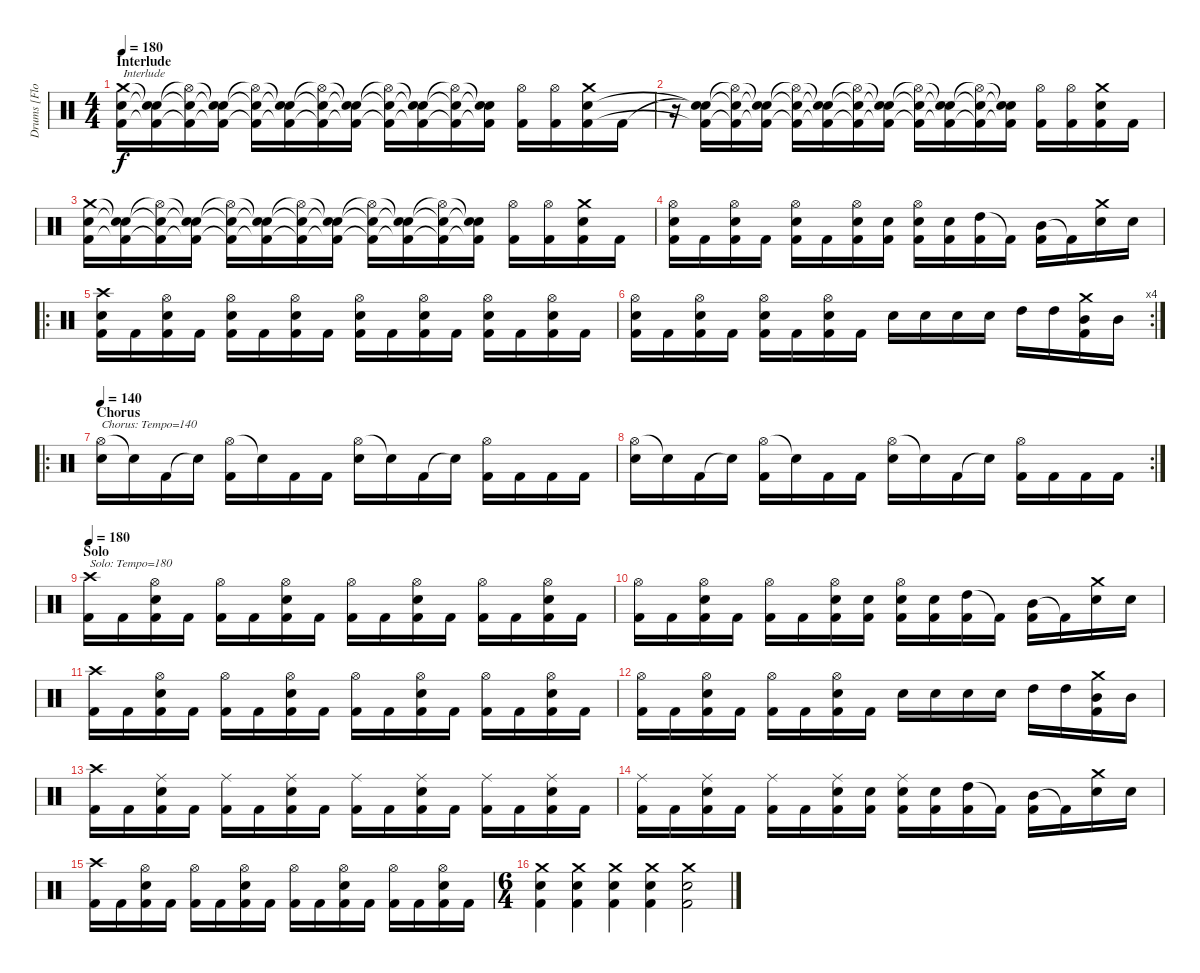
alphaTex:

\track ("Drums [Flo Mournier]" "Drums [Flo") {instrument percussion}
\staff {score}
\articulation defaults
\ts (4 4)
\section ("" "Interlude")
\tempo 180
\clef neutral
\ks c
("Crash medium (hit)" "Electric Snare (hit)" "Kick (hit) 2").16{txt "Interlude" dy f} ("Snare (hit)"{t} "Snare (hit)"{t} "Kick (hit) 2"{t}).16 ("Hi-Hat (open)"{t} "Electric Snare (hit)"{t} "Kick (hit) 2"{t}).16 ("Snare (hit)"{t} "Snare (hit)"{t} "Kick (hit) 2"{t}).16 ("Hi-Hat (open)"{t} "Electric Snare (hit)"{t} "Kick (hit) 2"{t}).16 ("Snare (hit)"{t} "Snare (hit)"{t} "Kick (hit) 2"{t}).16 ("Hi-Hat (open)"{t} "Electric Snare (hit)"{t} "Kick (hit) 2"{t}).16 ("Snare (hit)"{t} "Snare (hit)"{t} "Kick (hit) 2"{t}).16 ("Hi-Hat (open)"{t} "Electric Snare (hit)"{t} "Kick (hit) 2"{t}).16 ("Snare (hit)"{t} "Snare (hit)"{t} "Kick (hit) 2"{t}).16 ("Hi-Hat (open)"{t} "Electric Snare (hit)"{t} "Kick (hit) 2"{t}).16 ("Snare (hit)"{t} "Snare (hit)"{t} "Kick (hit) 2"{t}).16 ("Hi-Hat (open)" "Kick (hit) 2").16 ("Hi-Hat (open)" "Kick (hit) 2").16 ("Crash medium (hit)" "Electric Snare (hit)" "Kick (hit) 2").16 "Kick (hit) 2".16 |
r.16 ("Snare (hit)"{t} "Snare (hit)"{t} "Kick (hit) 2"{t}).16 ("Hi-Hat (open)"{t} "Electric Snare (hit)"{t} "Kick (hit) 2"{t}).16 ("Snare (hit)"{t} "Snare (hit)"{t} "Kick (hit) 2"{t}).16 ("Hi-Hat (open)"{t} "Electric Snare (hit)"{t} "Kick (hit) 2"{t}).16 ("Snare (hit)"{t} "Snare (hit)"{t} "Kick (hit) 2"{t}).16 ("Hi-Hat (open)"{t} "Electric Snare (hit)"{t} "Kick (hit) 2"{t}).16 ("Snare (hit)"{t} "Snare (hit)"{t} "Kick (hit) 2"{t}).16 ("Hi-Hat (open)"{t} "Electric Snare (hit)"{t} "Kick (hit) 2"{t}).16 ("Snare (hit)"{t} "Snare (hit)"{t} "Kick (hit) 2"{t}).16 ("Hi-Hat (open)"{t} "Electric Snare (hit)"{t} "Kick (hit) 2"{t}).16 ("Snare (hit)"{t} "Snare (hit)"{t} "Kick (hit) 2"{t}).16 ("Hi-Hat (open)" "Kick (hit) 2").16 ("Hi-Hat (open)" "Kick (hit) 2").16 ("Crash medium (hit)" "Electric Snare (hit)" "Kick (hit) 2").16 "Kick (hit) 2".16 |
("Crash medium (hit)" "Electric Snare (hit)" "Kick (hit) 2").16 ("Snare (hit)"{t} "Snare (hit)"{t} "Kick (hit) 2"{t}).16 ("Hi-Hat (open)"{t} "Electric Snare (hit)"{t} "Kick (hit) 2"{t}).16 ("Snare (hit)"{t} "Snare (hit)"{t} "Kick (hit) 2"{t}).16 ("Hi-Hat (open)"{t} "Electric Snare (hit)"{t} "Kick (hit) 2"{t}).16 ("Snare (hit)"{t} "Snare (hit)"{t} "Kick (hit) 2"{t}).16 ("Hi-Hat (open)"{t} "Electric Snare (hit)"{t} "Kick (hit) 2"{t}).16 ("Snare (hit)"{t} "Snare (hit)"{t} "Kick (hit) 2"{t}).16 ("Hi-Hat (open)"{t} "Electric Snare (hit)"{t} "Kick (hit) 2"{t}).16 ("Snare (hit)"{t} "Snare (hit)"{t} "Kick (hit) 2"{t}).16 ("Hi-Hat (open)"{t} "Electric Snare (hit)"{t} "Kick (hit) 2"{t}).16 ("Snare (hit)"{t} "Snare (hit)"{t} "Kick (hit) 2"{t}).16 ("Hi-Hat (open)" "Kick (hit) 2").16 ("Hi-Hat (open)" "Kick (hit) 2").16 ("Crash medium (hit)" "Electric Snare (hit)" "Kick (hit) 2").16 "Kick (hit) 2".16 |
("Hi-Hat (open)" "Electric Snare (hit)" "Kick (hit) 2").16 "Kick (hit) 2".16 ("Hi-Hat (open)" "Electric Snare (hit)" "Kick (hit) 2").16 "Kick (hit) 2".16 ("Hi-Hat (open)" "Electric Snare (hit)" "Kick (hit) 2").16 "Kick (hit) 2".16 ("Hi-Hat (open)" "Electric Snare (hit)" "Kick (hit) 2").16 ("Electric Snare (hit)" "Kick (hit) 2").16 ("Hi-Hat (open)" "Electric Snare (hit)" "Kick (hit) 2").16 ("Electric Snare (hit)" "Kick (hit) 2").16 ("High Tom (hit)" "Kick (hit) 2").16 "Kick (hit) 2"{t}.16 ("Mid Tom (hit)" "Kick (hit) 2").16 "Kick (hit) 2"{t}.16 ("Crash medium (hit)" "Electric Snare (hit)").16 "Electric Snare (hit)".16 |
\ro
("Crash high (hit)" "Electric Snare (hit)" "Kick (hit) 2").16 "Kick (hit) 2".16 ("Hi-Hat (open)" "Electric Snare (hit)" "Kick (hit) 2").16 "Kick (hit) 2".16 ("Hi-Hat (open)" "Electric Snare (hit)" "Kick (hit) 2").16 "Kick (hit) 2".16 ("Hi-Hat (open)" "Electric Snare (hit)" "Kick (hit) 2").16 "Kick (hit) 2".16 ("Hi-Hat (open)" "Electric Snare (hit)" "Kick (hit) 2").16 "Kick (hit) 2".16 ("Hi-Hat (open)" "Electric Snare (hit)" "Kick (hit) 2").16 "Kick (hit) 2".16 ("Hi-Hat (open)" "Electric Snare (hit)" "Kick (hit) 2").16 "Kick (hit) 2".16 ("Hi-Hat (open)" "Electric Snare (hit)" "Kick (hit) 2").16 "Kick (hit) 2".16 |
\rc 4
("Hi-Hat (open)" "Electric Snare (hit)" "Kick (hit) 2").16 "Kick (hit) 2".16 ("Hi-Hat (open)" "Electric Snare (hit)" "Kick (hit) 2").16 "Kick (hit) 2".16 ("Hi-Hat (open)" "Electric Snare (hit)" "Kick (hit) 2").16 "Kick (hit) 2".16 ("Hi-Hat (open)" "Electric Snare (hit)" "Kick (hit) 2").16 "Kick (hit) 2".16 "Electric Snare (hit)".16 "Electric Snare (hit)".16 "Electric Snare (hit)".16 "Electric Snare (hit)".16 "High Tom (hit)".16 "High Tom (hit)".16 ("Crash medium (hit)" "Mid Tom (hit)" "Kick (hit) 2").16 "Mid Tom (hit)".16 |
\ro
\section ("" "Chorus")
\tempo 140
("Hi-Hat (open)" "Electric Snare (hit)").16{txt "Chorus: Tempo=140"} "Snare (hit)"{t}.16 "Kick (hit) 2".16 "Snare (hit)"{t}.16 ("Hi-Hat (open)" "Kick (hit) 2").16 "Snare (hit)"{t}.16 "Kick (hit) 2".16 "Kick (hit) 2".16 ("Hi-Hat (open)" "Electric Snare (hit)").16 "Snare (hit)"{t}.16 "Kick (hit) 2".16 "Snare (hit)"{t}.16 ("Hi-Hat (open)" "Kick (hit) 2").16 "Kick (hit) 2".16 "Kick (hit) 2".16 "Kick (hit) 2".16 |
\rc 2
("Hi-Hat (open)" "Electric Snare (hit)").16 "Snare (hit)"{t}.16 "Kick (hit) 2".16 "Snare (hit)"{t}.16 ("Hi-Hat (open)" "Kick (hit) 2").16 "Snare (hit)"{t}.16 "Kick (hit) 2".16 "Kick (hit) 2".16 ("Hi-Hat (open)" "Electric Snare (hit)").16 "Snare (hit)"{t}.16 "Kick (hit) 2".16 "Snare (hit)"{t}.16 ("Hi-Hat (open)" "Kick (hit) 2").16 "Kick (hit) 2".16 "Kick (hit) 2".16 "Kick (hit) 2".16 |
\section ("" "Solo")
\tempo 180
("Crash high (hit)" "Kick (hit) 2").16{txt "Solo: Tempo=180"} "Kick (hit) 2".16 ("Hi-Hat (open)" "Electric Snare (hit)" "Kick (hit) 2").16 "Kick (hit) 2".16 ("Hi-Hat (open)" "Kick (hit) 2").16 "Kick (hit) 2".16 ("Hi-Hat (open)" "Electric Snare (hit)" "Kick (hit) 2").16 "Kick (hit) 2".16 ("Hi-Hat (open)" "Kick (hit) 2").16 "Kick (hit) 2".16 ("Hi-Hat (open)" "Electric Snare (hit)" "Kick (hit) 2").16 "Kick (hit) 2".16 ("Hi-Hat (open)" "Kick (hit) 2").16 "Kick (hit) 2".16 ("Hi-Hat (open)" "Electric Snare (hit)" "Kick (hit) 2").16 "Kick (hit) 2".16 |
("Hi-Hat (open)" "Kick (hit) 2").16 "Kick (hit) 2".16 ("Hi-Hat (open)" "Electric Snare (hit)" "Kick (hit) 2").16 "Kick (hit) 2".16 ("Hi-Hat (open)" "Kick (hit) 2").16 "Kick (hit) 2".16 ("Hi-Hat (open)" "Electric Snare (hit)" "Kick (hit) 2").16 ("Electric Snare (hit)" "Kick (hit) 2").16 ("Hi-Hat (open)" "Electric Snare (hit)" "Kick (hit) 2").16 ("Electric Snare (hit)" "Kick (hit) 2").16 ("High Tom (hit)" "Kick (hit) 2").16 "Kick (hit) 2"{t}.16 ("Mid Tom (hit)" "Kick (hit) 2").16 "Kick (hit) 2"{t}.16 ("Crash medium (hit)" "Electric Snare (hit)").16 "Electric Snare (hit)".16 |
("Crash high (hit)" "Kick (hit) 2").16 "Kick (hit) 2".16 ("Hi-Hat (open)" "Electric Snare (hit)" "Kick (hit) 2").16 "Kick (hit) 2".16 ("Hi-Hat (open)" "Kick (hit) 2").16 "Kick (hit) 2".16 ("Hi-Hat (open)" "Electric Snare (hit)" "Kick (hit) 2").16 "Kick (hit) 2".16 ("Hi-Hat (open)" "Kick (hit) 2").16 "Kick (hit) 2".16 ("Hi-Hat (open)" "Electric Snare (hit)" "Kick (hit) 2").16 "Kick (hit) 2".16 ("Hi-Hat (open)" "Kick (hit) 2").16 "Kick (hit) 2".16 ("Hi-Hat (open)" "Electric Snare (hit)" "Kick (hit) 2").16 "Kick (hit) 2".16 |
("Hi-Hat (open)" "Kick (hit) 2").16 "Kick (hit) 2".16 ("Hi-Hat (open)" "Electric Snare (hit)" "Kick (hit) 2").16 "Kick (hit) 2".16 ("Hi-Hat (open)" "Kick (hit) 2").16 "Kick (hit) 2".16 ("Hi-Hat (open)" "Electric Snare (hit)" "Kick (hit) 2").16 "Kick (hit) 2".16 "Electric Snare (hit)".16 "Electric Snare (hit)".16 "Electric Snare (hit)".16 "Electric Snare (hit)".16 "High Tom (hit)".16 "High Tom (hit)".16 ("Crash medium (hit)" "Mid Tom (hit)" "Kick (hit) 2").16 "Mid Tom (hit)".16 |
("Crash high (hit)" "Kick (hit) 2").16 "Kick (hit) 2".16 ("Ride (middle)" "Electric Snare (hit)" "Kick (hit) 2").16 "Kick (hit) 2".16 ("Ride (middle)" "Kick (hit) 2").16 "Kick (hit) 2".16 ("Ride (middle)" "Electric Snare (hit)" "Kick (hit) 2").16 "Kick (hit) 2".16 ("Ride (middle)" "Kick (hit) 2").16 "Kick (hit) 2".16 ("Ride (middle)" "Electric Snare (hit)" "Kick (hit) 2").16 "Kick (hit) 2".16 ("Ride (middle)" "Kick (hit) 2").16 "Kick (hit) 2".16 ("Ride (middle)" "Electric Snare (hit)" "Kick (hit) 2").16 "Kick (hit) 2".16 |
("Ride (middle)" "Kick (hit) 2").16 "Kick (hit) 2".16 ("Ride (middle)" "Electric Snare (hit)" "Kick (hit) 2").16 "Kick (hit) 2".16 ("Ride (middle)" "Kick (hit) 2").16 "Kick (hit) 2".16 ("Ride (middle)" "Electric Snare (hit)" "Kick (hit) 2").16 ("Electric Snare (hit)" "Kick (hit) 2").16 ("Ride (middle)" "Electric Snare (hit)" "Kick (hit) 2").16 ("Electric Snare (hit)" "Kick (hit) 2").16 ("High Tom (hit)" "Kick (hit) 2").16 "Kick (hit) 2"{t}.16 ("Mid Tom (hit)" "Kick (hit) 2").16 "Kick (hit) 2"{t}.16 ("Crash medium (hit)" "Electric Snare (hit)").16 "Electric Snare (hit)".16 |
("Crash high (hit)" "Kick (hit) 2").16 "Kick (hit) 2".16 ("Hi-Hat (open)" "Electric Snare (hit)" "Kick (hit) 2").16 "Kick (hit) 2".16 ("Hi-Hat (open)" "Kick (hit) 2").16 "Kick (hit) 2".16 ("Hi-Hat (open)" "Electric Snare (hit)" "Kick (hit) 2").16 "Kick (hit) 2".16 ("Hi-Hat (open)" "Kick (hit) 2").16 "Kick (hit) 2".16 ("Hi-Hat (open)" "Electric Snare (hit)" "Kick (hit) 2").16 "Kick (hit) 2".16 ("Hi-Hat (open)" "Kick (hit) 2").16 "Kick (hit) 2".16 ("Hi-Hat (open)" "Electric Snare (hit)" "Kick (hit) 2").16 "Kick (hit) 2".16 |
\ts (6 4)
("Crash medium (hit)" "Electric Snare (hit)" "Kick (hit) 2").4 ("Crash medium (hit)" "Electric Snare (hit)" "Kick (hit) 2").4 ("Crash medium (hit)" "Electric Snare (hit)" "Kick (hit) 2").4 ("Crash medium (hit)" "Electric Snare (hit)" "Kick (hit) 2").4 ("Crash medium (hit)" "Electric Snare (hit)" "Kick (hit) 2").2
